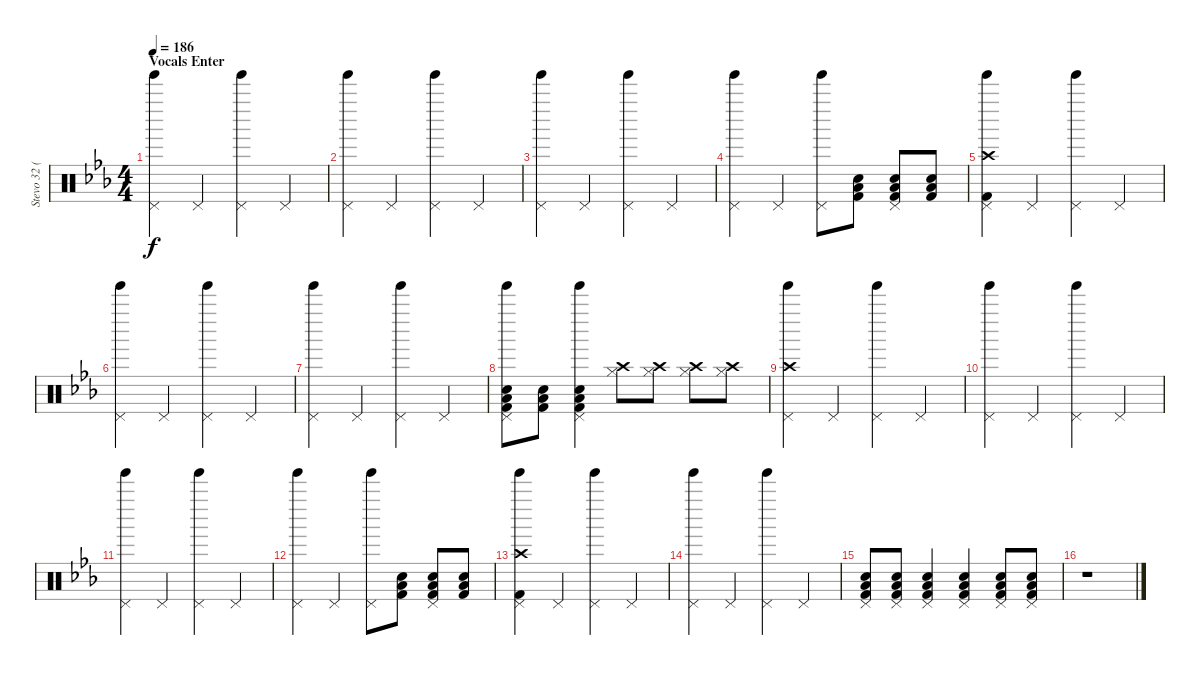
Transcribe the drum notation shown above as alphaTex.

\track ("Stevo 32 (Drums)" "Stevo 32 (") {instrument percussion}
\staff {score}
\articulation defaults
\ts (4 4)
\section ("" "Vocals Enter")
\tempo 186
\clef neutral
\ks eb
("Tinkle Bell (hit)" "Pedal Hi-Hat (hit)").4{dy f} "Pedal Hi-Hat (hit)".4 ("Tinkle Bell (hit)" "Pedal Hi-Hat (hit)").4 "Pedal Hi-Hat (hit)".4 |
("Tinkle Bell (hit)" "Pedal Hi-Hat (hit)").4 "Pedal Hi-Hat (hit)".4 ("Tinkle Bell (hit)" "Pedal Hi-Hat (hit)").4 "Pedal Hi-Hat (hit)".4 |
("Tinkle Bell (hit)" "Pedal Hi-Hat (hit)").4 "Pedal Hi-Hat (hit)".4 ("Tinkle Bell (hit)" "Pedal Hi-Hat (hit)").4 "Pedal Hi-Hat (hit)".4 |
("Tinkle Bell (hit)" "Pedal Hi-Hat (hit)").4 "Pedal Hi-Hat (hit)".4 ("Tinkle Bell (hit)" "Pedal Hi-Hat (hit)").8 ("Kick (hit) 2" "Low Floor Tom (hit)" "Snare (hit) 2").8 ("Kick (hit) 2" "Low Floor Tom (hit)" "Snare (hit) 2" "Pedal Hi-Hat (hit)").8 ("Kick (hit) 2" "Low Floor Tom (hit)" "Snare (hit) 2").8 |
("Kick (hit) 2" "Tinkle Bell (hit)" "Crash high (hit)" "Pedal Hi-Hat (hit)").4 "Pedal Hi-Hat (hit)".4 ("Tinkle Bell (hit)" "Pedal Hi-Hat (hit)").4 "Pedal Hi-Hat (hit)".4 |
("Tinkle Bell (hit)" "Pedal Hi-Hat (hit)").4 "Pedal Hi-Hat (hit)".4 ("Tinkle Bell (hit)" "Pedal Hi-Hat (hit)").4 "Pedal Hi-Hat (hit)".4 |
("Tinkle Bell (hit)" "Pedal Hi-Hat (hit)").4 "Pedal Hi-Hat (hit)".4 ("Tinkle Bell (hit)" "Pedal Hi-Hat (hit)").4 "Pedal Hi-Hat (hit)".4 |
("Kick (hit) 2" "Tinkle Bell (hit)" "Low Floor Tom (hit)" "Snare (hit) 2" "Pedal Hi-Hat (hit)").8 ("Kick (hit) 2" "Low Floor Tom (hit)" "Snare (hit) 2").8 ("Kick (hit) 2" "Tinkle Bell (hit)" "Low Floor Tom (hit)" "Snare (hit) 2" "Pedal Hi-Hat (hit)").4 ("Crash high (hit)" "Hi-Hat (closed)").8 ("Crash high (hit)" "Hi-Hat (closed)").8 ("Crash high (hit)" "Hi-Hat (closed)").8 ("Crash high (hit)" "Hi-Hat (closed)").8 |
("Tinkle Bell (hit)" "Crash high (hit)" "Pedal Hi-Hat (hit)").4 "Pedal Hi-Hat (hit)".4 ("Tinkle Bell (hit)" "Pedal Hi-Hat (hit)").4 "Pedal Hi-Hat (hit)".4 |
("Tinkle Bell (hit)" "Pedal Hi-Hat (hit)").4 "Pedal Hi-Hat (hit)".4 ("Tinkle Bell (hit)" "Pedal Hi-Hat (hit)").4 "Pedal Hi-Hat (hit)".4 |
("Tinkle Bell (hit)" "Pedal Hi-Hat (hit)").4 "Pedal Hi-Hat (hit)".4 ("Tinkle Bell (hit)" "Pedal Hi-Hat (hit)").4 "Pedal Hi-Hat (hit)".4 |
("Tinkle Bell (hit)" "Pedal Hi-Hat (hit)").4 "Pedal Hi-Hat (hit)".4 ("Tinkle Bell (hit)" "Pedal Hi-Hat (hit)").8 ("Kick (hit) 2" "Low Floor Tom (hit)" "Snare (hit) 2").8 ("Kick (hit) 2" "Low Floor Tom (hit)" "Snare (hit) 2" "Pedal Hi-Hat (hit)").8 ("Kick (hit) 2" "Low Floor Tom (hit)" "Snare (hit) 2").8 |
("Kick (hit) 2" "Tinkle Bell (hit)" "Crash high (hit)" "Pedal Hi-Hat (hit)").4 "Pedal Hi-Hat (hit)".4 ("Tinkle Bell (hit)" "Pedal Hi-Hat (hit)").4 "Pedal Hi-Hat (hit)".4 |
("Tinkle Bell (hit)" "Pedal Hi-Hat (hit)").4 "Pedal Hi-Hat (hit)".4 ("Tinkle Bell (hit)" "Pedal Hi-Hat (hit)").4 "Pedal Hi-Hat (hit)".4 |
("Kick (hit) 2" "Low Floor Tom (hit)" "Snare (hit) 2" "Pedal Hi-Hat (hit)").8 ("Kick (hit) 2" "Low Floor Tom (hit)" "Snare (hit) 2" "Pedal Hi-Hat (hit)").8 ("Kick (hit) 2" "Low Floor Tom (hit)" "Snare (hit) 2" "Pedal Hi-Hat (hit)").4 ("Kick (hit) 2" "Low Floor Tom (hit)" "Snare (hit) 2" "Pedal Hi-Hat (hit)").4 ("Kick (hit) 2" "Low Floor Tom (hit)" "Snare (hit) 2" "Pedal Hi-Hat (hit)").8 ("Kick (hit) 2" "Low Floor Tom (hit)" "Snare (hit) 2" "Pedal Hi-Hat (hit)").8 |
r.1
